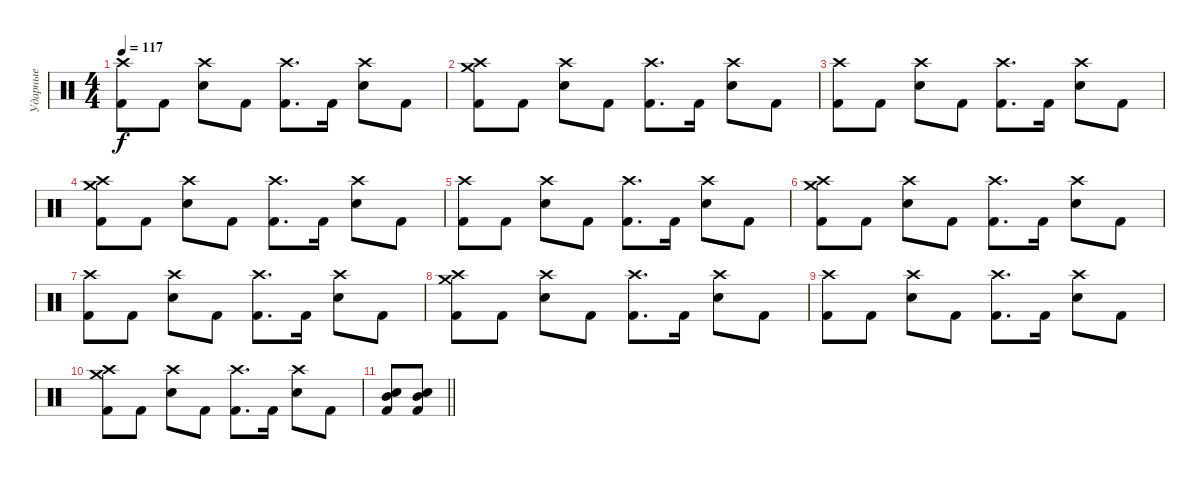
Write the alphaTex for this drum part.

\track ("Ударные" "Ударные") {instrument percussion}
\staff {score}
\articulation defaults
\ts (4 4)
\tempo 117
\clef neutral
\ks c
("Crash high (hit)" "Kick (hit) 2").8{dy f} "Kick (hit) 2".8 ("Crash high (hit)" "Electric Snare (hit)").8 "Kick (hit) 2".8 ("Crash high (hit)" "Kick (hit) 2").8{d} "Kick (hit) 2".16 ("Crash high (hit)" "Electric Snare (hit)").8 "Kick (hit) 2".8 |
("Crash medium (hit)" "Crash high (hit)" "Kick (hit) 2").8 "Kick (hit) 2".8 ("Crash high (hit)" "Electric Snare (hit)").8 "Kick (hit) 2".8 ("Crash high (hit)" "Kick (hit) 2").8{d} "Kick (hit) 2".16 ("Crash high (hit)" "Electric Snare (hit)").8 "Kick (hit) 2".8 |
("Crash high (hit)" "Kick (hit) 2").8 "Kick (hit) 2".8 ("Crash high (hit)" "Electric Snare (hit)").8 "Kick (hit) 2".8 ("Crash high (hit)" "Kick (hit) 2").8{d} "Kick (hit) 2".16 ("Crash high (hit)" "Electric Snare (hit)").8 "Kick (hit) 2".8 |
("Crash medium (hit)" "Crash high (hit)" "Kick (hit) 2").8 "Kick (hit) 2".8 ("Crash high (hit)" "Electric Snare (hit)").8 "Kick (hit) 2".8 ("Crash high (hit)" "Kick (hit) 2").8{d} "Kick (hit) 2".16 ("Crash high (hit)" "Electric Snare (hit)").8 "Kick (hit) 2".8 |
("Crash high (hit)" "Kick (hit) 2").8 "Kick (hit) 2".8 ("Crash high (hit)" "Electric Snare (hit)").8 "Kick (hit) 2".8 ("Crash high (hit)" "Kick (hit) 2").8{d} "Kick (hit) 2".16 ("Crash high (hit)" "Electric Snare (hit)").8 "Kick (hit) 2".8 |
("Crash medium (hit)" "Crash high (hit)" "Kick (hit) 2").8 "Kick (hit) 2".8 ("Crash high (hit)" "Electric Snare (hit)").8 "Kick (hit) 2".8 ("Crash high (hit)" "Kick (hit) 2").8{d} "Kick (hit) 2".16 ("Crash high (hit)" "Electric Snare (hit)").8 "Kick (hit) 2".8 |
("Crash high (hit)" "Kick (hit) 2").8 "Kick (hit) 2".8 ("Crash high (hit)" "Electric Snare (hit)").8 "Kick (hit) 2".8 ("Crash high (hit)" "Kick (hit) 2").8{d} "Kick (hit) 2".16 ("Crash high (hit)" "Electric Snare (hit)").8 "Kick (hit) 2".8 |
("Crash medium (hit)" "Crash high (hit)" "Kick (hit) 2").8 "Kick (hit) 2".8 ("Crash high (hit)" "Electric Snare (hit)").8 "Kick (hit) 2".8 ("Crash high (hit)" "Kick (hit) 2").8{d} "Kick (hit) 2".16 ("Crash high (hit)" "Electric Snare (hit)").8 "Kick (hit) 2".8 |
("Crash high (hit)" "Kick (hit) 2").8 "Kick (hit) 2".8 ("Crash high (hit)" "Electric Snare (hit)").8 "Kick (hit) 2".8 ("Crash high (hit)" "Kick (hit) 2").8{d} "Kick (hit) 2".16 ("Crash high (hit)" "Electric Snare (hit)").8 "Kick (hit) 2".8 |
("Crash medium (hit)" "Crash high (hit)" "Kick (hit) 2").8 "Kick (hit) 2".8 ("Crash high (hit)" "Electric Snare (hit)").8 "Kick (hit) 2".8 ("Crash high (hit)" "Kick (hit) 2").8{d} "Kick (hit) 2".16 ("Crash high (hit)" "Electric Snare (hit)").8 "Kick (hit) 2".8 |
\barLineRight lightlight
("Electric Snare (hit)" "Mid Tom (hit)" "Kick (hit) 2").8 ("Electric Snare (hit)" "Mid Tom (hit)" "Kick (hit) 2").8
